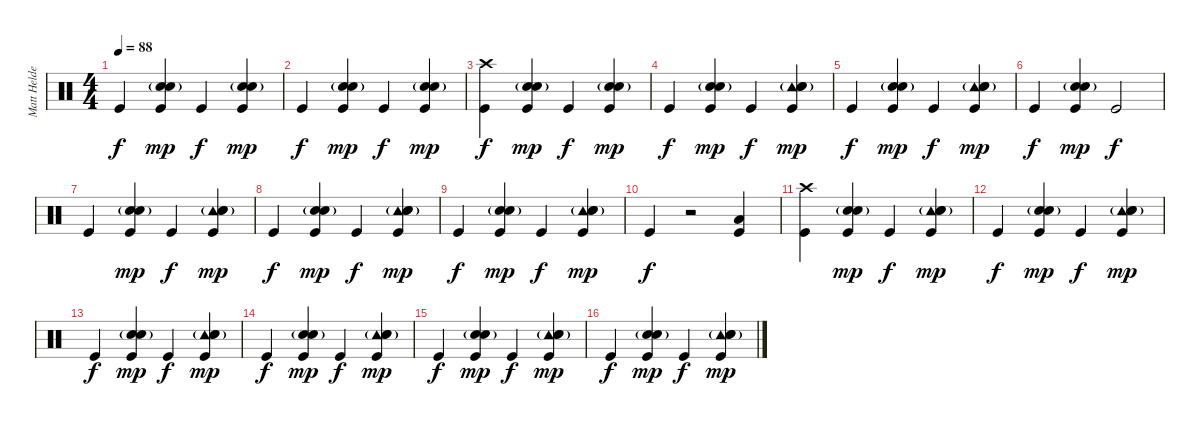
\track ("Matt Helders" "Matt Helde") {instrument percussion}
\staff {score}
\articulation defaults
\ts (4 4)
\tempo 88
\clef neutral
\ks c "Kick (hit)".4{dy f}
("Hand Clap (hit)" "Snare (hit) 2"{g} "Kick (hit)").4{dy mp} "Kick (hit)".4{dy f} ("Hand Clap (hit)" "Snare (hit) 2"{g} "Kick (hit)").4{dy mp} |
"Kick (hit)".4{dy f} ("Hand Clap (hit)" "Snare (hit) 2"{g} "Kick (hit)").4{dy mp} "Kick (hit)".4{dy f} ("Hand Clap (hit)" "Snare (hit) 2"{g} "Kick (hit)").4{dy mp} |
("Crash high (hit)" "Kick (hit)").4{dy f} ("Hand Clap (hit)" "Snare (hit) 2"{g} "Kick (hit)").4{dy mp} "Kick (hit)".4{dy f} ("Hand Clap (hit)" "Snare (hit) 2"{g} "Kick (hit)").4{dy mp} |
"Kick (hit)".4{dy f} ("Hand Clap (hit)" "Snare (hit) 2"{g} "Kick (hit)").4{dy mp} "Kick (hit)".4{dy f} ("Tambourine (hit)" "Hand Clap (hit)" "Snare (hit) 2"{g} "Kick (hit)").4{dy mp} |
"Kick (hit)".4{dy f} ("Hand Clap (hit)" "Snare (hit) 2"{g} "Kick (hit)").4{dy mp} "Kick (hit)".4{dy f} ("Tambourine (hit)" "Hand Clap (hit)" "Snare (hit) 2"{g} "Kick (hit)").4{dy mp} |
"Kick (hit)".4{dy f} ("Hand Clap (hit)" "Snare (hit) 2"{g} "Kick (hit)").4{dy mp} "Kick (hit)".2{dy f} |
"Kick (hit)".4 ("Hand Clap (hit)" "Snare (hit) 2"{g} "Kick (hit)").4{dy mp} "Kick (hit)".4{dy f} ("Tambourine (hit)" "Hand Clap (hit)" "Snare (hit) 2"{g} "Kick (hit)").4{dy mp} |
"Kick (hit)".4{dy f} ("Hand Clap (hit)" "Snare (hit) 2"{g} "Kick (hit)").4{dy mp} "Kick (hit)".4{dy f} ("Tambourine (hit)" "Hand Clap (hit)" "Snare (hit) 2"{g} "Kick (hit)").4{dy mp} |
"Kick (hit)".4{dy f} ("Hand Clap (hit)" "Snare (hit) 2"{g} "Kick (hit)").4{dy mp} "Kick (hit)".4{dy f} ("Tambourine (hit)" "Hand Clap (hit)" "Snare (hit) 2"{g} "Kick (hit)").4{dy mp} |
"Kick (hit)".4{dy f} r.2 ("Low Floor Tom (hit)" "Kick (hit)").4 |
("Crash high (hit)" "Kick (hit)").4 ("Hand Clap (hit)" "Snare (hit) 2"{g} "Kick (hit)").4{dy mp} "Kick (hit)".4{dy f} ("Tambourine (hit)" "Hand Clap (hit)" "Snare (hit) 2"{g} "Kick (hit)").4{dy mp} |
"Kick (hit)".4{dy f} ("Hand Clap (hit)" "Snare (hit) 2"{g} "Kick (hit)").4{dy mp} "Kick (hit)".4{dy f} ("Tambourine (hit)" "Hand Clap (hit)" "Snare (hit) 2"{g} "Kick (hit)").4{dy mp} |
"Kick (hit)".4{dy f} ("Hand Clap (hit)" "Snare (hit) 2"{g} "Kick (hit)").4{dy mp} "Kick (hit)".4{dy f} ("Tambourine (hit)" "Hand Clap (hit)" "Snare (hit) 2"{g} "Kick (hit)").4{dy mp} |
"Kick (hit)".4{dy f} ("Hand Clap (hit)" "Snare (hit) 2"{g} "Kick (hit)").4{dy mp} "Kick (hit)".4{dy f} ("Tambourine (hit)" "Hand Clap (hit)" "Snare (hit) 2"{g} "Kick (hit)").4{dy mp} |
"Kick (hit)".4{dy f} ("Hand Clap (hit)" "Snare (hit) 2"{g} "Kick (hit)").4{dy mp} "Kick (hit)".4{dy f} ("Tambourine (hit)" "Hand Clap (hit)" "Snare (hit) 2"{g} "Kick (hit)").4{dy mp} |
"Kick (hit)".4{dy f} ("Hand Clap (hit)" "Snare (hit) 2"{g} "Kick (hit)").4{dy mp} "Kick (hit)".4{dy f} ("Tambourine (hit)" "Hand Clap (hit)" "Snare (hit) 2"{g} "Kick (hit)").4{dy mp}
